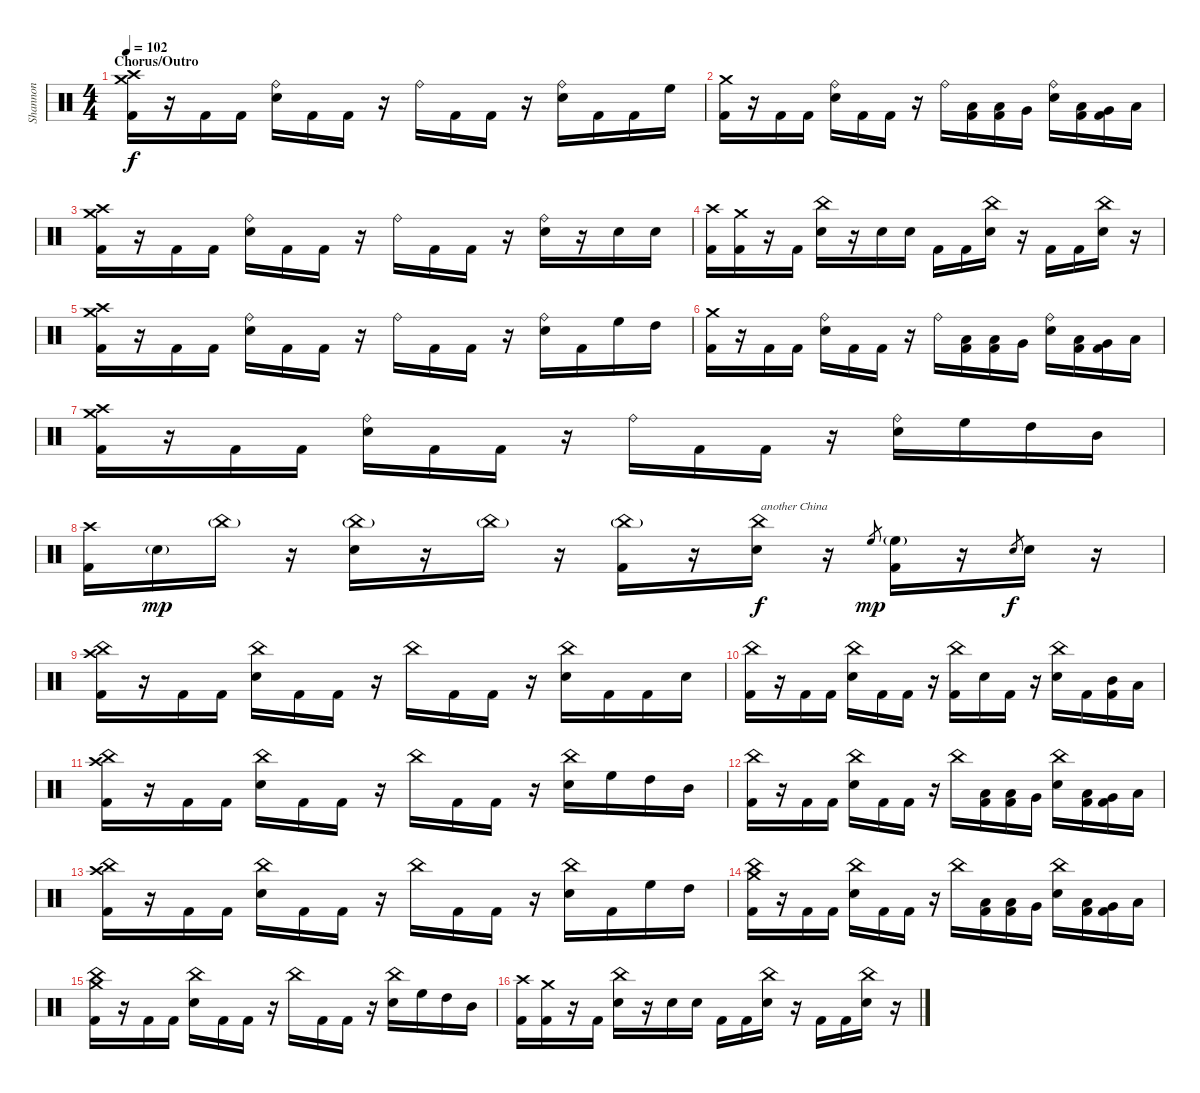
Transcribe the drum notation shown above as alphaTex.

\track ("Shannon" "Shannon") {instrument percussion}
\staff {score}
\articulation defaults
\ts (4 4)
\section ("" "Chorus/Outro")
\tempo 102
\clef neutral
\ks c
("Crash high (hit)" "Crash medium (hit)" "Kick (hit) 2").16{dy f} r.16 "Kick (hit) 2".16 "Kick (hit) 2".16 ("Ride (bell)" "Electric Snare (hit)").16 "Kick (hit) 2".16 "Kick (hit) 2".16 r.16 "Ride (bell)".16 "Kick (hit) 2".16 "Kick (hit) 2".16 r.16 ("Ride (bell)" "Electric Snare (hit)").16 "Kick (hit) 2".16 "Kick (hit) 2".16 "High Floor Tom (hit)".16 |
("Crash medium (hit)" "Kick (hit) 2").16 r.16 "Kick (hit) 2".16 "Kick (hit) 2".16 ("Ride (bell)" "Electric Snare (hit)").16 "Kick (hit) 2".16 "Kick (hit) 2".16 r.16 "Ride (bell)".16 ("Low Tom (hit)" "Kick (hit) 2").16 ("Low Tom (hit)" "Kick (hit) 2").16 "Very Low Tom (hit)".16 ("Ride (bell)" "Electric Snare (hit)").16 ("Low Tom (hit)" "Kick (hit) 2").16 ("Very Low Tom (hit)" "Kick (hit) 2").16 "Low Floor Tom (hit)".16 |
("Crash high (hit)" "Crash medium (hit)" "Kick (hit) 2").16 r.16 "Kick (hit) 2".16 "Kick (hit) 2".16 ("Ride (bell)" "Electric Snare (hit)").16 "Kick (hit) 2".16 "Kick (hit) 2".16 r.16 "Ride (bell)".16 "Kick (hit) 2".16 "Kick (hit) 2".16 r.16 ("Ride (bell)" "Electric Snare (hit)").16 r.16 "Electric Snare (hit)".16 "Electric Snare (hit)".16 |
("Crash high (hit)" "Kick (hit) 2").16 ("Crash medium (hit)" "Kick (hit) 2").16 r.16 "Kick (hit) 2".16 ("China (hit)" "Electric Snare (hit)").16 r.16 "Electric Snare (hit)".16 "Electric Snare (hit)".16 "Kick (hit) 2".16 "Kick (hit) 2".16 ("China (hit)" "Electric Snare (hit)").16 r.16 "Kick (hit) 2".16 "Kick (hit) 2".16 ("China (hit)" "Electric Snare (hit)").16 r.16 |
("Crash high (hit)" "Crash medium (hit)" "Kick (hit) 2").16 r.16 "Kick (hit) 2".16 "Kick (hit) 2".16 ("Ride (bell)" "Electric Snare (hit)").16 "Kick (hit) 2".16 "Kick (hit) 2".16 r.16 "Ride (bell)".16 "Kick (hit) 2".16 "Kick (hit) 2".16 r.16 ("Ride (bell)" "Electric Snare (hit)").16 "Kick (hit) 2".16 "High Floor Tom (hit)".16 "High Tom (hit)".16 |
("Crash medium (hit)" "Kick (hit) 2").16 r.16 "Kick (hit) 2".16 "Kick (hit) 2".16 ("Ride (bell)" "Electric Snare (hit)").16 "Kick (hit) 2".16 "Kick (hit) 2".16 r.16 "Ride (bell)".16 ("Low Tom (hit)" "Kick (hit) 2").16 ("Low Tom (hit)" "Kick (hit) 2").16 "Very Low Tom (hit)".16 ("Ride (bell)" "Electric Snare (hit)").16 ("Low Tom (hit)" "Kick (hit) 2").16 ("Very Low Tom (hit)" "Kick (hit) 2").16 "Low Floor Tom (hit)".16 |
("Crash high (hit)" "Crash medium (hit)" "Kick (hit) 2").16 r.16 "Kick (hit) 2".16 "Kick (hit) 2".16 ("Ride (bell)" "Electric Snare (hit)").16 "Kick (hit) 2".16 "Kick (hit) 2".16 r.16 "Ride (bell)".16 "Kick (hit) 2".16 "Kick (hit) 2".16 r.16 ("Ride (bell)" "Electric Snare (hit)").16 "High Floor Tom (hit)".16 "High Tom (hit)".16 "Mid Tom (hit)".16 |
("Crash high (hit)" "Kick (hit) 2").16 "Electric Snare (hit)"{g}.16{dy mp} "China (hit)"{g}.16 r.16 ("China (hit)"{g} "Electric Snare (hit)").16 r.16 "China (hit)"{g}.16 r.16 ("China (hit)"{g} "Kick (hit) 2").16 r.16 ("China (hit)" "Electric Snare (hit)").16{txt "another China" dy f} r.16 "High Floor Tom (hit)".8{gr dy mp} ("High Floor Tom (hit)"{g} "Kick (hit) 2").16 r.16 "Electric Snare (hit)".8{gr dy f} "Electric Snare (hit)".16 r.16 |
("Crash high (hit)" "China (hit)" "Kick (hit) 2").16 r.16 "Kick (hit) 2".16 "Kick (hit) 2".16 ("China (hit)" "Electric Snare (hit)").16 "Kick (hit) 2".16 "Kick (hit) 2".16 r.16 "China (hit)".16 "Kick (hit) 2".16 "Kick (hit) 2".16 r.16 ("China (hit)" "Electric Snare (hit)").16 "Kick (hit) 2".16 "Kick (hit) 2".16 "Electric Snare (hit)".16 |
("China (hit)" "Kick (hit) 2").16 r.16 "Kick (hit) 2".16 "Kick (hit) 2".16 ("China (hit)" "Electric Snare (hit)").16 "Kick (hit) 2".16 "Kick (hit) 2".16 r.16 ("China (hit)" "Kick (hit) 2").16 "Electric Snare (hit)".16 "Kick (hit) 2".16 r.16 ("China (hit)" "Electric Snare (hit)").16 "Kick (hit) 2".16 ("Mid Tom (hit)" "Kick (hit) 2").16 "Low Tom (hit)".16 |
("Crash high (hit)" "China (hit)" "Kick (hit) 2").16 r.16 "Kick (hit) 2".16 "Kick (hit) 2".16 ("China (hit)" "Electric Snare (hit)").16 "Kick (hit) 2".16 "Kick (hit) 2".16 r.16 "China (hit)".16 "Kick (hit) 2".16 "Kick (hit) 2".16 r.16 ("China (hit)" "Electric Snare (hit)").16 "High Floor Tom (hit)".16 "High Tom (hit)".16 "Mid Tom (hit)".16 |
("China (hit)" "Kick (hit) 2").16 r.16 "Kick (hit) 2".16 "Kick (hit) 2".16 ("China (hit)" "Electric Snare (hit)").16 "Kick (hit) 2".16 "Kick (hit) 2".16 r.16 "China (hit)".16 ("Low Tom (hit)" "Kick (hit) 2").16 ("Low Tom (hit)" "Kick (hit) 2").16 "Very Low Tom (hit)".16 ("China (hit)" "Electric Snare (hit)").16 ("Low Tom (hit)" "Kick (hit) 2").16 ("Very Low Tom (hit)" "Kick (hit) 2").16 "Low Floor Tom (hit)".16 |
("Crash high (hit)" "China (hit)" "Kick (hit) 2").16 r.16 "Kick (hit) 2".16 "Kick (hit) 2".16 ("China (hit)" "Electric Snare (hit)").16 "Kick (hit) 2".16 "Kick (hit) 2".16 r.16 "China (hit)".16 "Kick (hit) 2".16 "Kick (hit) 2".16 r.16 ("China (hit)" "Electric Snare (hit)").16 "Kick (hit) 2".16 "High Floor Tom (hit)".16 "High Tom (hit)".16 |
("Crash medium (hit)" "China (hit)" "Kick (hit) 2").16 r.16 "Kick (hit) 2".16 "Kick (hit) 2".16 ("China (hit)" "Electric Snare (hit)").16 "Kick (hit) 2".16 "Kick (hit) 2".16 r.16 "China (hit)".16 ("Low Tom (hit)" "Kick (hit) 2").16 ("Low Tom (hit)" "Kick (hit) 2").16 "Very Low Tom (hit)".16 ("China (hit)" "Electric Snare (hit)").16 ("Low Tom (hit)" "Kick (hit) 2").16 ("Very Low Tom (hit)" "Kick (hit) 2").16 "Low Floor Tom (hit)".16 |
("Crash medium (hit)" "China (hit)" "Kick (hit) 2").16 r.16 "Kick (hit) 2".16 "Kick (hit) 2".16 ("China (hit)" "Electric Snare (hit)").16 "Kick (hit) 2".16 "Kick (hit) 2".16 r.16 "China (hit)".16 "Kick (hit) 2".16 "Kick (hit) 2".16 r.16 ("China (hit)" "Electric Snare (hit)").16 "High Floor Tom (hit)".16 "High Tom (hit)".16 "Mid Tom (hit)".16 |
("Crash high (hit)" "Kick (hit) 2").16 ("Crash medium (hit)" "Kick (hit) 2").16 r.16 "Kick (hit) 2".16 ("China (hit)" "Electric Snare (hit)").16 r.16 "Electric Snare (hit)".16 "Electric Snare (hit)".16 "Kick (hit) 2".16 "Kick (hit) 2".16 ("China (hit)" "Electric Snare (hit)").16 r.16 "Kick (hit) 2".16 "Kick (hit) 2".16 ("China (hit)" "Electric Snare (hit)").16 r.16
